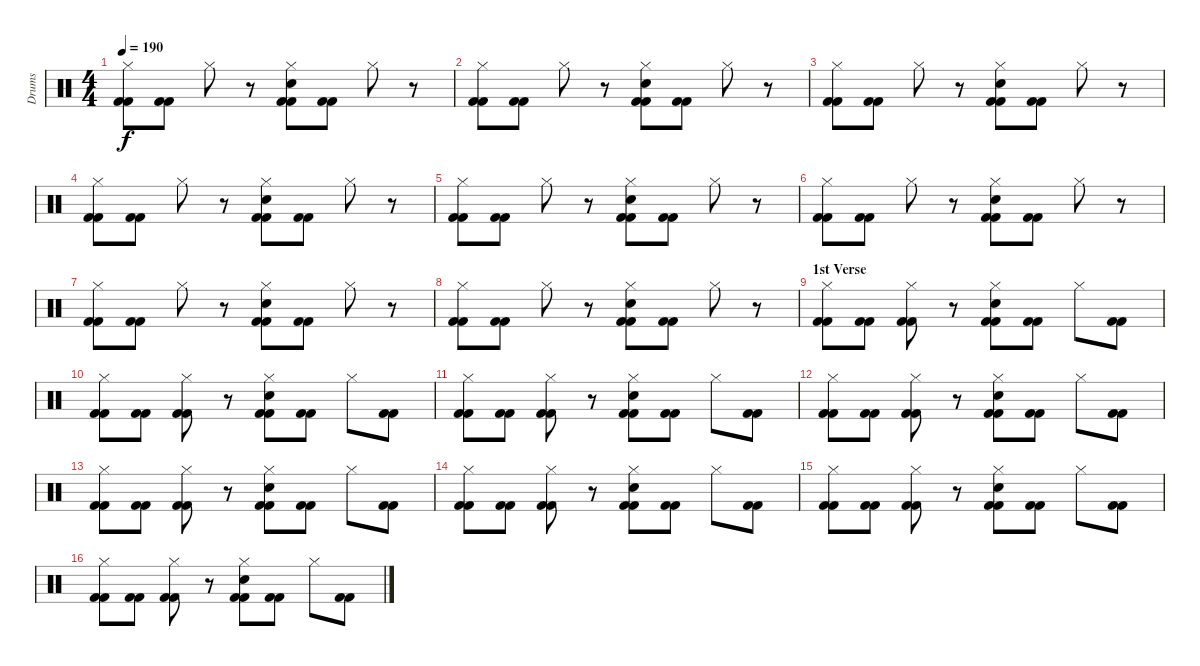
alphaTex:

\track ("Drums" "Drums") {instrument percussion}
\staff {score}
\articulation defaults
\ts (4 4)
\tempo 190
\clef neutral
\ks c
("Hi-Hat (closed)" "Kick (hit) 2" "Kick (hit) 2").8{dy f} ("Kick (hit) 2" "Kick (hit) 2").8 "Hi-Hat (closed)".8 r.8 ("Hi-Hat (closed)" "Snare (hit) 2" "Kick (hit) 2" "Kick (hit) 2").8 ("Kick (hit) 2" "Kick (hit) 2").8 "Hi-Hat (closed)".8 r.8 |
("Hi-Hat (closed)" "Kick (hit) 2" "Kick (hit) 2").8 ("Kick (hit) 2" "Kick (hit) 2").8 "Hi-Hat (closed)".8 r.8 ("Hi-Hat (closed)" "Snare (hit) 2" "Kick (hit) 2" "Kick (hit) 2").8 ("Kick (hit) 2" "Kick (hit) 2").8 "Hi-Hat (closed)".8 r.8 |
("Hi-Hat (closed)" "Kick (hit) 2" "Kick (hit) 2").8 ("Kick (hit) 2" "Kick (hit) 2").8 "Hi-Hat (closed)".8 r.8 ("Hi-Hat (closed)" "Snare (hit) 2" "Kick (hit) 2" "Kick (hit) 2").8 ("Kick (hit) 2" "Kick (hit) 2").8 "Hi-Hat (closed)".8 r.8 |
("Hi-Hat (closed)" "Kick (hit) 2" "Kick (hit) 2").8 ("Kick (hit) 2" "Kick (hit) 2").8 "Hi-Hat (closed)".8 r.8 ("Hi-Hat (closed)" "Snare (hit) 2" "Kick (hit) 2" "Kick (hit) 2").8 ("Kick (hit) 2" "Kick (hit) 2").8 "Hi-Hat (closed)".8 r.8 |
("Hi-Hat (closed)" "Kick (hit) 2" "Kick (hit) 2").8 ("Kick (hit) 2" "Kick (hit) 2").8 "Hi-Hat (closed)".8 r.8 ("Hi-Hat (closed)" "Snare (hit) 2" "Kick (hit) 2" "Kick (hit) 2").8 ("Kick (hit) 2" "Kick (hit) 2").8 "Hi-Hat (closed)".8 r.8 |
("Hi-Hat (closed)" "Kick (hit) 2" "Kick (hit) 2").8 ("Kick (hit) 2" "Kick (hit) 2").8 "Hi-Hat (closed)".8 r.8 ("Hi-Hat (closed)" "Snare (hit) 2" "Kick (hit) 2" "Kick (hit) 2").8 ("Kick (hit) 2" "Kick (hit) 2").8 "Hi-Hat (closed)".8 r.8 |
("Hi-Hat (closed)" "Kick (hit) 2" "Kick (hit) 2").8 ("Kick (hit) 2" "Kick (hit) 2").8 "Hi-Hat (closed)".8 r.8 ("Hi-Hat (closed)" "Snare (hit) 2" "Kick (hit) 2" "Kick (hit) 2").8 ("Kick (hit) 2" "Kick (hit) 2").8 "Hi-Hat (closed)".8 r.8 |
("Hi-Hat (closed)" "Kick (hit) 2" "Kick (hit) 2").8 ("Kick (hit) 2" "Kick (hit) 2").8 "Hi-Hat (closed)".8 r.8 ("Hi-Hat (closed)" "Snare (hit) 2" "Kick (hit) 2" "Kick (hit) 2").8 ("Kick (hit) 2" "Kick (hit) 2").8 "Hi-Hat (closed)".8 r.8 |
\section ("" "1st Verse")
("Hi-Hat (closed)" "Kick (hit) 2" "Kick (hit) 2").8 ("Kick (hit) 2" "Kick (hit) 2").8 ("Hi-Hat (closed)" "Kick (hit) 2" "Kick (hit) 2").8 r.8 ("Hi-Hat (closed)" "Snare (hit) 2" "Kick (hit) 2" "Kick (hit) 2").8 ("Kick (hit) 2" "Kick (hit) 2").8 "Hi-Hat (closed)".8 ("Kick (hit) 2" "Kick (hit) 2").8 |
("Hi-Hat (closed)" "Kick (hit) 2" "Kick (hit) 2").8 ("Kick (hit) 2" "Kick (hit) 2").8 ("Hi-Hat (closed)" "Kick (hit) 2" "Kick (hit) 2").8 r.8 ("Hi-Hat (closed)" "Snare (hit) 2" "Kick (hit) 2" "Kick (hit) 2").8 ("Kick (hit) 2" "Kick (hit) 2").8 "Hi-Hat (closed)".8 ("Kick (hit) 2" "Kick (hit) 2").8 |
("Hi-Hat (closed)" "Kick (hit) 2" "Kick (hit) 2").8 ("Kick (hit) 2" "Kick (hit) 2").8 ("Hi-Hat (closed)" "Kick (hit) 2" "Kick (hit) 2").8 r.8 ("Hi-Hat (closed)" "Snare (hit) 2" "Kick (hit) 2" "Kick (hit) 2").8 ("Kick (hit) 2" "Kick (hit) 2").8 "Hi-Hat (closed)".8 ("Kick (hit) 2" "Kick (hit) 2").8 |
("Hi-Hat (closed)" "Kick (hit) 2" "Kick (hit) 2").8 ("Kick (hit) 2" "Kick (hit) 2").8 ("Hi-Hat (closed)" "Kick (hit) 2" "Kick (hit) 2").8 r.8 ("Hi-Hat (closed)" "Snare (hit) 2" "Kick (hit) 2" "Kick (hit) 2").8 ("Kick (hit) 2" "Kick (hit) 2").8 "Hi-Hat (closed)".8 ("Kick (hit) 2" "Kick (hit) 2").8 |
("Hi-Hat (closed)" "Kick (hit) 2" "Kick (hit) 2").8 ("Kick (hit) 2" "Kick (hit) 2").8 ("Hi-Hat (closed)" "Kick (hit) 2" "Kick (hit) 2").8 r.8 ("Hi-Hat (closed)" "Snare (hit) 2" "Kick (hit) 2" "Kick (hit) 2").8 ("Kick (hit) 2" "Kick (hit) 2").8 "Hi-Hat (closed)".8 ("Kick (hit) 2" "Kick (hit) 2").8 |
("Hi-Hat (closed)" "Kick (hit) 2" "Kick (hit) 2").8 ("Kick (hit) 2" "Kick (hit) 2").8 ("Hi-Hat (closed)" "Kick (hit) 2" "Kick (hit) 2").8 r.8 ("Hi-Hat (closed)" "Snare (hit) 2" "Kick (hit) 2" "Kick (hit) 2").8 ("Kick (hit) 2" "Kick (hit) 2").8 "Hi-Hat (closed)".8 ("Kick (hit) 2" "Kick (hit) 2").8 |
("Hi-Hat (closed)" "Kick (hit) 2" "Kick (hit) 2").8 ("Kick (hit) 2" "Kick (hit) 2").8 ("Hi-Hat (closed)" "Kick (hit) 2" "Kick (hit) 2").8 r.8 ("Hi-Hat (closed)" "Snare (hit) 2" "Kick (hit) 2" "Kick (hit) 2").8 ("Kick (hit) 2" "Kick (hit) 2").8 "Hi-Hat (closed)".8 ("Kick (hit) 2" "Kick (hit) 2").8 |
("Hi-Hat (closed)" "Kick (hit) 2" "Kick (hit) 2").8 ("Kick (hit) 2" "Kick (hit) 2").8 ("Hi-Hat (closed)" "Kick (hit) 2" "Kick (hit) 2").8 r.8 ("Hi-Hat (closed)" "Snare (hit) 2" "Kick (hit) 2" "Kick (hit) 2").8 ("Kick (hit) 2" "Kick (hit) 2").8 "Hi-Hat (closed)".8 ("Kick (hit) 2" "Kick (hit) 2").8
